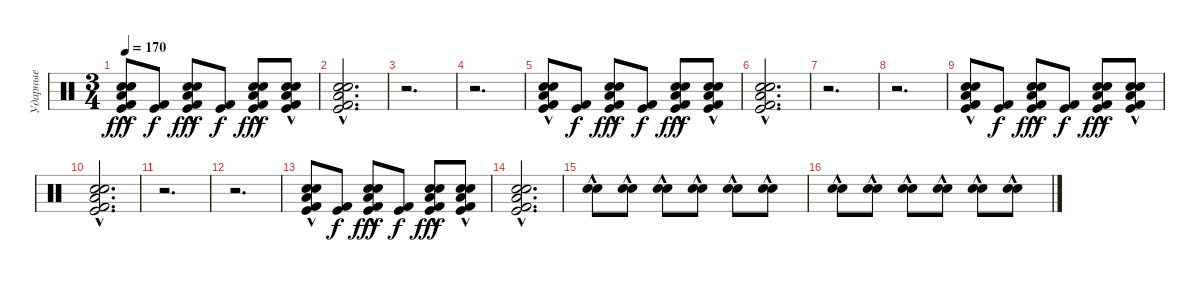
\track ("Ударные" "Ударные") {instrument percussion}
\staff {score}
\articulation defaults
\ts (3 4)
\tempo 170
\clef neutral
\ks c
("Kick (hit)" "Kick (hit) 2" "Snare (hit) 2"{hac} "Electric Snare (hit)"{hac} "Low Floor Tom (hit)"{hac}).8{dy fff} ("Kick (hit)" "Kick (hit) 2").8{dy f} ("Kick (hit)" "Kick (hit) 2" "Snare (hit) 2"{hac} "Electric Snare (hit)"{hac} "Low Floor Tom (hit)"{hac}).8{dy fff} ("Kick (hit)" "Kick (hit) 2").8{dy f} ("Kick (hit)" "Kick (hit) 2" "Snare (hit) 2"{hac} "Electric Snare (hit)"{hac} "Low Floor Tom (hit)"{hac}).8{dy fff} ("Kick (hit)" "Kick (hit) 2" "Snare (hit) 2"{hac} "Electric Snare (hit)"{hac} "Low Floor Tom (hit)"{hac}).8 |
("Kick (hit)" "Kick (hit) 2" "Snare (hit) 2"{hac} "Electric Snare (hit)"{hac} "Low Floor Tom (hit)"{hac}).2{d} |
r.2{d} |
r.2{d} |
("Kick (hit)" "Kick (hit) 2" "Snare (hit) 2"{hac} "Electric Snare (hit)"{hac} "Low Floor Tom (hit)"{hac}).8 ("Kick (hit)" "Kick (hit) 2").8{dy f} ("Kick (hit)" "Kick (hit) 2" "Snare (hit) 2"{hac} "Electric Snare (hit)"{hac} "Low Floor Tom (hit)"{hac}).8{dy fff} ("Kick (hit)" "Kick (hit) 2").8{dy f} ("Kick (hit)" "Kick (hit) 2" "Snare (hit) 2"{hac} "Electric Snare (hit)"{hac} "Low Floor Tom (hit)"{hac}).8{dy fff} ("Kick (hit)" "Kick (hit) 2" "Snare (hit) 2"{hac} "Electric Snare (hit)"{hac} "Low Floor Tom (hit)"{hac}).8 |
("Kick (hit)" "Kick (hit) 2" "Snare (hit) 2"{hac} "Electric Snare (hit)"{hac} "Low Floor Tom (hit)"{hac}).2{d} |
r.2{d} |
r.2{d} |
("Kick (hit)" "Kick (hit) 2" "Snare (hit) 2"{hac} "Electric Snare (hit)"{hac} "Low Floor Tom (hit)"{hac}).8 ("Kick (hit)" "Kick (hit) 2").8{dy f} ("Kick (hit)" "Kick (hit) 2" "Snare (hit) 2"{hac} "Electric Snare (hit)"{hac} "Low Floor Tom (hit)"{hac}).8{dy fff} ("Kick (hit)" "Kick (hit) 2").8{dy f} ("Kick (hit)" "Kick (hit) 2" "Snare (hit) 2"{hac} "Electric Snare (hit)"{hac} "Low Floor Tom (hit)"{hac}).8{dy fff} ("Kick (hit)" "Kick (hit) 2" "Snare (hit) 2"{hac} "Electric Snare (hit)"{hac} "Low Floor Tom (hit)"{hac}).8 |
("Kick (hit)" "Kick (hit) 2" "Snare (hit) 2"{hac} "Electric Snare (hit)"{hac} "Low Floor Tom (hit)"{hac}).2{d} |
r.2{d} |
r.2{d} |
("Kick (hit)" "Kick (hit) 2" "Snare (hit) 2"{hac} "Electric Snare (hit)"{hac} "Low Floor Tom (hit)"{hac}).8 ("Kick (hit)" "Kick (hit) 2").8{dy f} ("Kick (hit)" "Kick (hit) 2" "Snare (hit) 2"{hac} "Electric Snare (hit)"{hac} "Low Floor Tom (hit)"{hac}).8{dy fff} ("Kick (hit)" "Kick (hit) 2").8{dy f} ("Kick (hit)" "Kick (hit) 2" "Snare (hit) 2"{hac} "Electric Snare (hit)"{hac} "Low Floor Tom (hit)"{hac}).8{dy fff} ("Kick (hit)" "Kick (hit) 2" "Snare (hit) 2"{hac} "Electric Snare (hit)"{hac} "Low Floor Tom (hit)"{hac}).8 |
("Kick (hit)" "Kick (hit) 2" "Snare (hit) 2"{hac} "Electric Snare (hit)"{hac} "Low Floor Tom (hit)"{hac}).2{d} |
("Snare (hit) 2"{hac} "Electric Snare (hit)"{hac}).8 ("Snare (hit) 2"{hac} "Electric Snare (hit)"{hac}).8 ("Snare (hit) 2"{hac} "Electric Snare (hit)"{hac}).8 ("Snare (hit) 2"{hac} "Electric Snare (hit)"{hac}).8 ("Snare (hit) 2"{hac} "Electric Snare (hit)"{hac}).8 ("Snare (hit) 2"{hac} "Electric Snare (hit)"{hac}).8 |
("Snare (hit) 2"{hac} "Electric Snare (hit)"{hac}).8 ("Snare (hit) 2"{hac} "Electric Snare (hit)"{hac}).8 ("Snare (hit) 2"{hac} "Electric Snare (hit)"{hac}).8 ("Snare (hit) 2"{hac} "Electric Snare (hit)"{hac}).8 ("Snare (hit) 2"{hac} "Electric Snare (hit)"{hac}).8 ("Snare (hit) 2"{hac} "Electric Snare (hit)"{hac}).8
